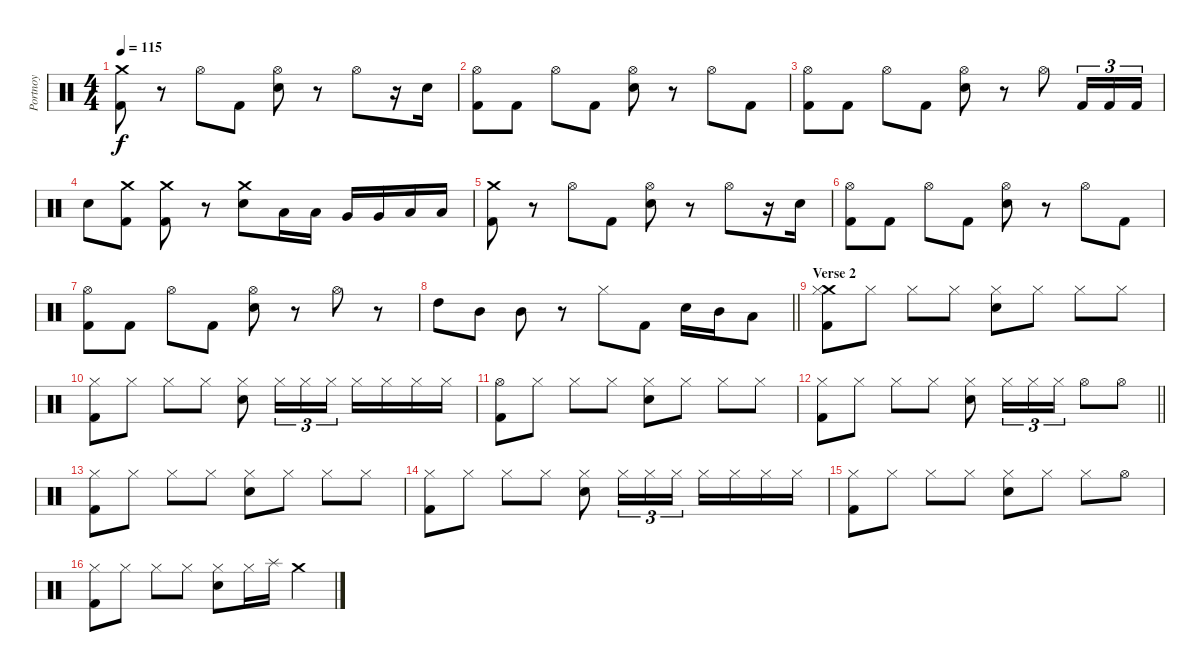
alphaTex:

\track ("Portnoy" "Portnoy") {instrument percussion}
\staff {score}
\articulation defaults
\ts (4 4)
\tempo 115
\clef neutral
\ks c
("Crash medium (hit)" "Kick (hit) 2").8{dy f} r.8 "Hi-Hat (open)".8 "Kick (hit) 2".8 ("Hi-Hat (open)" "Snare (hit) 2").8 r.8 "Hi-Hat (open)".8 r.16 "Snare (hit) 2".16 |
("Hi-Hat (open)" "Kick (hit) 2").8 "Kick (hit) 2".8 "Hi-Hat (open)".8 "Kick (hit) 2".8 ("Hi-Hat (open)" "Snare (hit) 2").8 r.8 "Hi-Hat (open)".8 "Kick (hit) 2".8 |
("Hi-Hat (open)" "Kick (hit) 2").8 "Kick (hit) 2".8 "Hi-Hat (open)".8 "Kick (hit) 2".8 ("Hi-Hat (open)" "Snare (hit) 2").8 r.8 "Hi-Hat (open)".8 "Kick (hit) 2".16{tu (3 2)} "Kick (hit) 2".16{tu (3 2)} "Kick (hit) 2".16{tu (3 2)} |
"Snare (hit) 2".8 ("Crash medium (hit)" "Kick (hit) 2").8 ("Crash medium (hit)" "Kick (hit) 2").8 r.8 ("Crash medium (hit)" "Snare (hit) 2").8 "Low Tom (hit)".16 "Low Tom (hit)".16 "Very Low Tom (hit)".16 "Very Low Tom (hit)".16 "Low Floor Tom (hit)".16 "Low Floor Tom (hit)".16 |
("Crash medium (hit)" "Kick (hit) 2").8 r.8 "Hi-Hat (open)".8 "Kick (hit) 2".8 ("Hi-Hat (open)" "Snare (hit) 2").8 r.8 "Hi-Hat (open)".8 r.16 "Snare (hit) 2".16 |
("Hi-Hat (open)" "Kick (hit) 2").8 "Kick (hit) 2".8 "Hi-Hat (open)".8 "Kick (hit) 2".8 ("Hi-Hat (open)" "Snare (hit) 2").8 r.8 "Hi-Hat (open)".8 "Kick (hit) 2".8 |
("Hi-Hat (open)" "Kick (hit) 2").8 "Kick (hit) 2".8 "Hi-Hat (open)".8 "Kick (hit) 2".8 ("Hi-Hat (open)" "Snare (hit) 2").8 r.8 "Hi-Hat (open)".8 r.8 |
\barLineRight lightlight "High Tom (hit)".8 "Mid Tom (hit)".8 "Mid Tom (hit)".8
r.8 "Hi-Hat (closed)".8 "Kick (hit) 2".8 "Snare (hit) 2".16 "Mid Tom (hit)".16 "Low Floor Tom (hit)".8 |
\section ("" "Verse 2")
("Crash medium (hit)" "Hi-Hat (closed)" "Kick (hit) 2").8 "Hi-Hat (closed)".8 "Hi-Hat (closed)".8 "Hi-Hat (closed)".8 ("Hi-Hat (closed)" "Snare (hit) 2").8 "Hi-Hat (closed)".8 "Hi-Hat (closed)".8 "Hi-Hat (closed)".8 |
("Hi-Hat (closed)" "Kick (hit) 2").8 "Hi-Hat (closed)".8 "Hi-Hat (closed)".8 "Hi-Hat (closed)".8 ("Hi-Hat (closed)" "Snare (hit) 2").8 "Hi-Hat (closed)".16{tu (3 2)} "Hi-Hat (closed)".16{tu (3 2)} "Hi-Hat (closed)".16{tu (3 2)} "Hi-Hat (closed)".16 "Hi-Hat (closed)".16 "Hi-Hat (closed)".16 "Hi-Hat (closed)".16 |
("Hi-Hat (open)" "Kick (hit) 2").8 "Hi-Hat (closed)".8 "Hi-Hat (closed)".8 "Hi-Hat (closed)".8 ("Hi-Hat (closed)" "Snare (hit) 2").8 "Hi-Hat (closed)".8 "Hi-Hat (closed)".8 "Hi-Hat (closed)".8 |
\barLineRight lightlight
("Hi-Hat (closed)" "Kick (hit) 2").8 "Hi-Hat (closed)".8 "Hi-Hat (closed)".8 "Hi-Hat (closed)".8 ("Hi-Hat (closed)" "Snare (hit) 2").8 "Hi-Hat (closed)".16{tu (3 2)} "Hi-Hat (closed)".16{tu (3 2)} "Hi-Hat (closed)".16{tu (3 2)} "Hi-Hat (open)".8 "Hi-Hat (open)".8 |
("Hi-Hat (closed)" "Kick (hit) 2").8 "Hi-Hat (closed)".8 "Hi-Hat (closed)".8 "Hi-Hat (closed)".8 ("Hi-Hat (closed)" "Snare (hit) 2").8 "Hi-Hat (closed)".8 "Hi-Hat (closed)".8 "Hi-Hat (closed)".8 |
("Hi-Hat (closed)" "Kick (hit) 2").8 "Hi-Hat (closed)".8 "Hi-Hat (closed)".8 "Hi-Hat (closed)".8 ("Hi-Hat (closed)" "Snare (hit) 2").8 "Hi-Hat (closed)".16{tu (3 2)} "Hi-Hat (closed)".16{tu (3 2)} "Hi-Hat (closed)".16{tu (3 2)} "Hi-Hat (closed)".16 "Hi-Hat (closed)".16 "Hi-Hat (closed)".16 "Hi-Hat (closed)".16 |
("Hi-Hat (closed)" "Kick (hit) 2").8 "Hi-Hat (closed)".8 "Hi-Hat (closed)".8 "Hi-Hat (closed)".8 ("Hi-Hat (closed)" "Snare (hit) 2").8 "Hi-Hat (closed)".8 "Hi-Hat (closed)".8 "Hi-Hat (open)".8 |
("Hi-Hat (closed)" "Kick (hit) 2").8 "Hi-Hat (closed)".8 "Hi-Hat (closed)".8 "Hi-Hat (closed)".8 ("Hi-Hat (closed)" "Snare (hit) 2").8 "Hi-Hat (closed)".16 "Splash (hit)".16 "Crash medium (hit)".4
